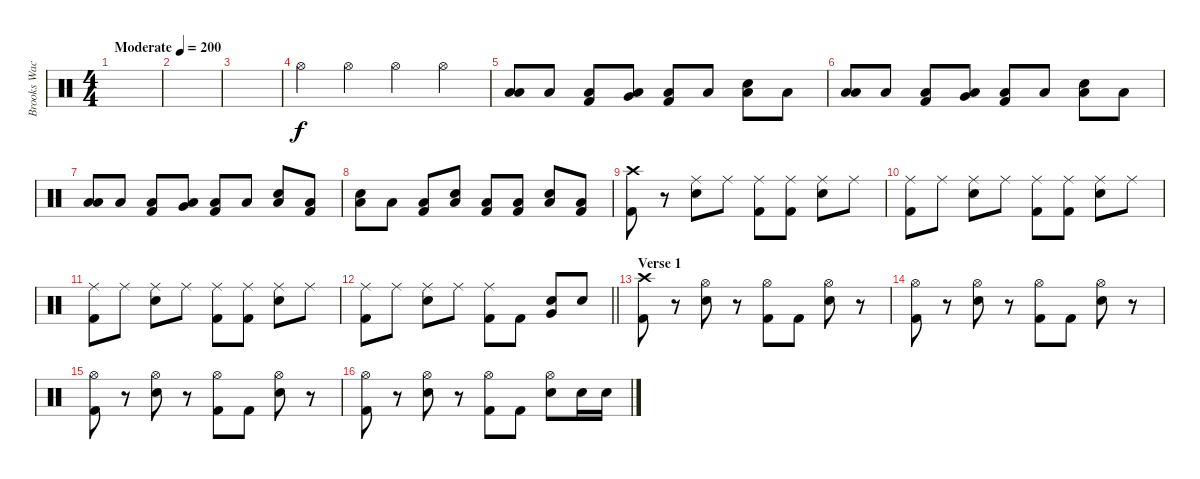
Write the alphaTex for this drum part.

\track ("Brooks Wackerman" "Brooks Wac") {instrument percussion}
\staff {score}
\articulation defaults
\ts (4 4)
\tempo (200 "Moderate")
\clef neutral
\ks c
|
|
|
"Hi-Hat (open)".4 "Hi-Hat (open)".4 "Hi-Hat (open)".4 "Hi-Hat (open)".4 |
("Low Floor Tom (hit)" "Low Tom (hit)").8 "Low Floor Tom (hit)".8 ("Low Floor Tom (hit)" "Kick (hit) 2").8 ("Low Floor Tom (hit)" "Very Low Tom (hit)").8 ("Low Floor Tom (hit)" "Kick (hit) 2").8 "Low Floor Tom (hit)".8 ("Low Floor Tom (hit)" "Electric Snare (hit)").8 "Low Floor Tom (hit)".8 |
("Low Floor Tom (hit)" "Low Tom (hit)").8 "Low Floor Tom (hit)".8 ("Low Floor Tom (hit)" "Kick (hit) 2").8 ("Low Floor Tom (hit)" "Very Low Tom (hit)").8 ("Low Floor Tom (hit)" "Kick (hit) 2").8 "Low Floor Tom (hit)".8 ("Low Floor Tom (hit)" "Electric Snare (hit)").8 "Low Floor Tom (hit)".8 |
("Low Floor Tom (hit)" "Low Tom (hit)").8 "Low Floor Tom (hit)".8 ("Low Floor Tom (hit)" "Kick (hit) 2").8 ("Low Floor Tom (hit)" "Very Low Tom (hit)").8 ("Low Floor Tom (hit)" "Kick (hit) 2").8 "Low Floor Tom (hit)".8 ("Low Floor Tom (hit)" "Electric Snare (hit)").8 ("Low Floor Tom (hit)" "Kick (hit) 2").8 |
("Low Floor Tom (hit)" "Electric Snare (hit)").8 "Low Floor Tom (hit)".8 ("Low Floor Tom (hit)" "Kick (hit) 2").8 ("Low Floor Tom (hit)" "Electric Snare (hit)").8 ("Low Floor Tom (hit)" "Kick (hit) 2").8 ("Low Floor Tom (hit)" "Kick (hit) 2").8 ("Low Floor Tom (hit)" "Electric Snare (hit)").8 ("Low Floor Tom (hit)" "Kick (hit) 2").8 |
("Crash high (hit)" "Kick (hit) 2").8 r.8 ("Ride (middle)" "Electric Snare (hit)").8 "Ride (middle)".8 ("Ride (middle)" "Kick (hit) 2").8 ("Ride (middle)" "Kick (hit) 2").8 ("Ride (middle)" "Electric Snare (hit)").8 "Ride (middle)".8 |
("Ride (middle)" "Kick (hit) 2").8 "Ride (middle)".8 ("Ride (middle)" "Electric Snare (hit)").8 "Ride (middle)".8 ("Ride (middle)" "Kick (hit) 2").8 ("Ride (middle)" "Kick (hit) 2").8 ("Ride (middle)" "Electric Snare (hit)").8 "Ride (middle)".8 |
("Ride (middle)" "Kick (hit) 2").8 "Ride (middle)".8 ("Ride (middle)" "Electric Snare (hit)").8 "Ride (middle)".8 ("Ride (middle)" "Kick (hit) 2").8 ("Ride (middle)" "Kick (hit) 2").8 ("Ride (middle)" "Electric Snare (hit)").8 "Ride (middle)".8 |
\barLineRight lightlight
("Ride (middle)" "Kick (hit) 2").8 "Ride (middle)".8 ("Ride (middle)" "Electric Snare (hit)").8 "Ride (middle)".8 ("Ride (middle)" "Kick (hit) 2").8 "Kick (hit) 2".8 ("Very Low Tom (hit)" "Electric Snare (hit)").8 "Electric Snare (hit)".8 |
\section ("" "Verse 1")
("Crash high (hit)" "Kick (hit) 2").8 r.8 ("Hi-Hat (open)" "Electric Snare (hit)").8 r.8 ("Hi-Hat (open)" "Kick (hit) 2").8 "Kick (hit) 2".8 ("Hi-Hat (open)" "Electric Snare (hit)").8 r.8 |
("Hi-Hat (open)" "Kick (hit) 2").8 r.8 ("Hi-Hat (open)" "Electric Snare (hit)").8 r.8 ("Hi-Hat (open)" "Kick (hit) 2").8 "Kick (hit) 2".8 ("Hi-Hat (open)" "Electric Snare (hit)").8 r.8 |
("Hi-Hat (open)" "Kick (hit) 2").8 r.8 ("Hi-Hat (open)" "Electric Snare (hit)").8 r.8 ("Hi-Hat (open)" "Kick (hit) 2").8 "Kick (hit) 2".8 ("Hi-Hat (open)" "Electric Snare (hit)").8 r.8 |
("Hi-Hat (open)" "Kick (hit) 2").8 r.8 ("Hi-Hat (open)" "Electric Snare (hit)").8 r.8 ("Hi-Hat (open)" "Kick (hit) 2").8 "Kick (hit) 2".8 ("Hi-Hat (open)" "Electric Snare (hit)").8 "Electric Snare (hit)".16 "Electric Snare (hit)".16
